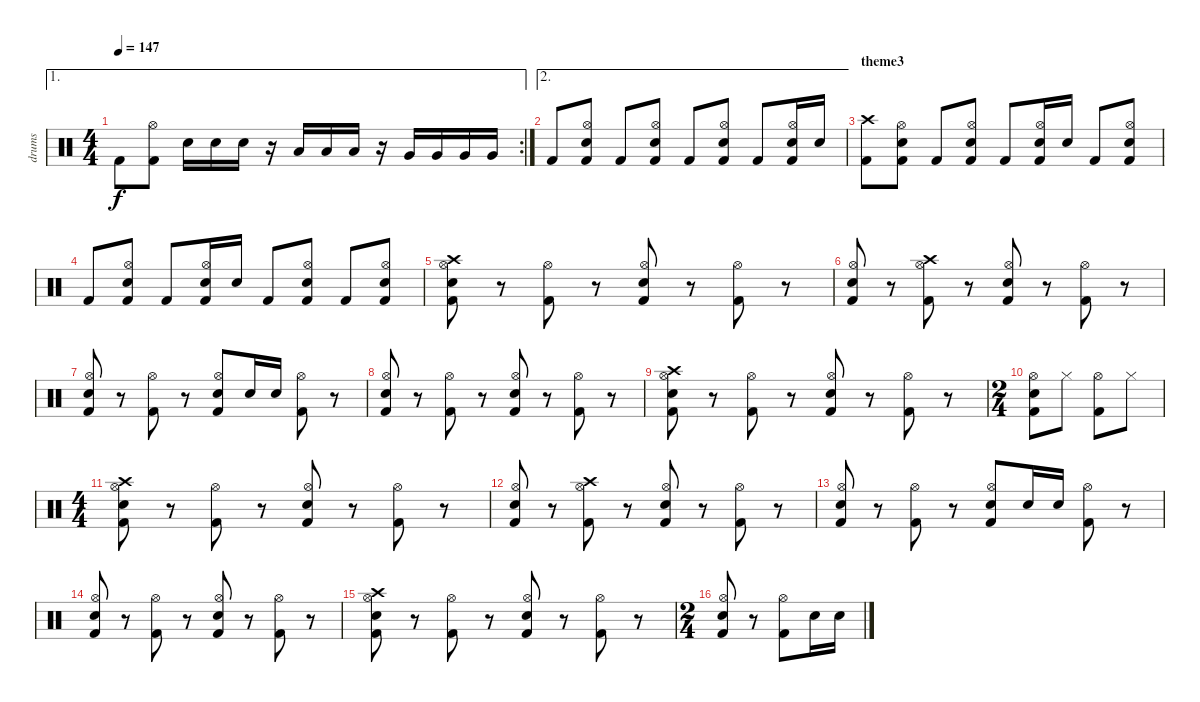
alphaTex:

\track ("drums" "drums") {instrument percussion}
\staff {score}
\articulation defaults
\ae 1
\rc 2
\ts (4 4)
\tempo 147
\clef neutral
\ks c "Kick (hit) 2".8{dy f}
("Hi-Hat (open)" "Kick (hit) 2").8 "Snare (hit) 2".16 "Snare (hit) 2".16 "Snare (hit) 2".16 r.16 "Low Floor Tom (hit)".16 "Low Floor Tom (hit)".16 "Low Floor Tom (hit)".16 r.16 "Very Low Tom (hit)".16 "Very Low Tom (hit)".16 "Very Low Tom (hit)".16 "Very Low Tom (hit)".16 |
\ae 2 "Kick (hit) 2".8
("Hi-Hat (open)" "Snare (hit) 2" "Kick (hit) 2").8 "Kick (hit) 2".8 ("Hi-Hat (open)" "Snare (hit) 2" "Kick (hit) 2").8 "Kick (hit) 2".8 ("Hi-Hat (open)" "Snare (hit) 2" "Kick (hit) 2").8 "Kick (hit) 2".8 ("Hi-Hat (open)" "Snare (hit) 2" "Kick (hit) 2").16 "Snare (hit) 2".16 |
\section ("" "theme3")
("Crash high (hit)" "Kick (hit) 2").8 ("Hi-Hat (open)" "Snare (hit) 2" "Kick (hit) 2").8 "Kick (hit) 2".8 ("Hi-Hat (open)" "Snare (hit) 2" "Kick (hit) 2").8 "Kick (hit) 2".8 ("Hi-Hat (open)" "Snare (hit) 2" "Kick (hit) 2").16 "Snare (hit) 2".16 "Kick (hit) 2".8 ("Hi-Hat (open)" "Snare (hit) 2" "Kick (hit) 2").8 |
"Kick (hit) 2".8 ("Hi-Hat (open)" "Snare (hit) 2" "Kick (hit) 2").8 "Kick (hit) 2".8 ("Hi-Hat (open)" "Snare (hit) 2" "Kick (hit) 2").16 "Snare (hit) 2".16 "Kick (hit) 2".8 ("Hi-Hat (open)" "Snare (hit) 2" "Kick (hit) 2").8 "Kick (hit) 2".8 ("Hi-Hat (open)" "Snare (hit) 2" "Kick (hit) 2").8 |
("Hi-Hat (open)" "Crash high (hit)" "Snare (hit) 2" "Kick (hit) 2").8 r.8 ("Hi-Hat (open)" "Kick (hit) 2").8 r.8 ("Hi-Hat (open)" "Snare (hit) 2" "Kick (hit) 2").8 r.8 ("Hi-Hat (open)" "Kick (hit) 2").8 r.8 |
("Hi-Hat (open)" "Snare (hit) 2" "Kick (hit) 2").8 r.8 ("Hi-Hat (open)" "Crash high (hit)" "Kick (hit) 2").8 r.8 ("Hi-Hat (open)" "Snare (hit) 2" "Kick (hit) 2").8 r.8 ("Hi-Hat (open)" "Kick (hit) 2").8 r.8 |
("Hi-Hat (open)" "Snare (hit) 2" "Kick (hit) 2").8 r.8 ("Hi-Hat (open)" "Kick (hit) 2").8 r.8 ("Hi-Hat (open)" "Snare (hit) 2" "Kick (hit) 2").8 "Snare (hit) 2".16 "Snare (hit) 2".16 ("Hi-Hat (open)" "Kick (hit) 2").8 r.8 |
("Hi-Hat (open)" "Snare (hit) 2" "Kick (hit) 2").8 r.8 ("Hi-Hat (open)" "Kick (hit) 2").8 r.8 ("Hi-Hat (open)" "Snare (hit) 2" "Kick (hit) 2").8 r.8 ("Hi-Hat (open)" "Kick (hit) 2").8 r.8 |
("Hi-Hat (open)" "Crash high (hit)" "Snare (hit) 2" "Kick (hit) 2").8 r.8 ("Hi-Hat (open)" "Kick (hit) 2").8 r.8 ("Hi-Hat (open)" "Snare (hit) 2" "Kick (hit) 2").8 r.8 ("Hi-Hat (open)" "Kick (hit) 2").8 r.8 |
\ts (2 4)
("Hi-Hat (open)" "Snare (hit) 2" "Kick (hit) 2").8 "Hi-Hat (closed)".8 ("Hi-Hat (open)" "Kick (hit) 2").8 "Hi-Hat (closed)".8 |
\ts (4 4)
("Hi-Hat (open)" "Crash high (hit)" "Snare (hit) 2" "Kick (hit) 2").8 r.8 ("Hi-Hat (open)" "Kick (hit) 2").8 r.8 ("Hi-Hat (open)" "Snare (hit) 2" "Kick (hit) 2").8 r.8 ("Hi-Hat (open)" "Kick (hit) 2").8 r.8 |
("Hi-Hat (open)" "Snare (hit) 2" "Kick (hit) 2").8 r.8 ("Hi-Hat (open)" "Crash high (hit)" "Kick (hit) 2").8 r.8 ("Hi-Hat (open)" "Snare (hit) 2" "Kick (hit) 2").8 r.8 ("Hi-Hat (open)" "Kick (hit) 2").8 r.8 |
("Hi-Hat (open)" "Snare (hit) 2" "Kick (hit) 2").8 r.8 ("Hi-Hat (open)" "Kick (hit) 2").8 r.8 ("Hi-Hat (open)" "Snare (hit) 2" "Kick (hit) 2").8 "Snare (hit) 2".16 "Snare (hit) 2".16 ("Hi-Hat (open)" "Kick (hit) 2").8 r.8 |
("Hi-Hat (open)" "Snare (hit) 2" "Kick (hit) 2").8 r.8 ("Hi-Hat (open)" "Kick (hit) 2").8 r.8 ("Hi-Hat (open)" "Snare (hit) 2" "Kick (hit) 2").8 r.8 ("Hi-Hat (open)" "Kick (hit) 2").8 r.8 |
("Hi-Hat (open)" "Crash high (hit)" "Snare (hit) 2" "Kick (hit) 2").8 r.8 ("Hi-Hat (open)" "Kick (hit) 2").8 r.8 ("Hi-Hat (open)" "Snare (hit) 2" "Kick (hit) 2").8 r.8 ("Hi-Hat (open)" "Kick (hit) 2").8 r.8 |
\ts (2 4)
("Hi-Hat (open)" "Snare (hit) 2" "Kick (hit) 2").8 r.8 ("Hi-Hat (open)" "Kick (hit) 2").8 "Snare (hit) 2".16 "Snare (hit) 2".16
